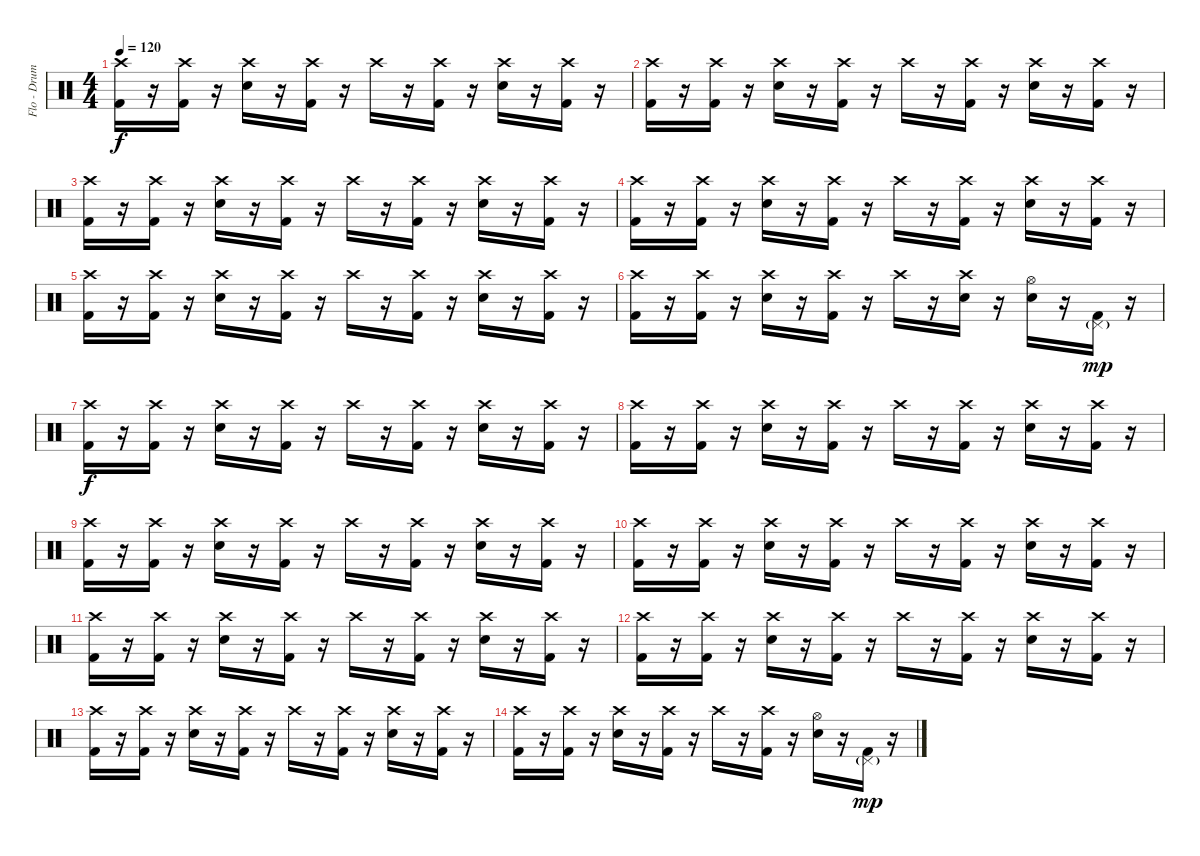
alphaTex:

\track ("Flo - Drums" "Flo - Drum") {instrument percussion}
\staff {score}
\articulation defaults
\ts (4 4)
\tempo 120
\clef neutral
\ks c
("Crash high (hit)" "Kick (hit) 2").16{dy f} r.16 ("Crash high (hit)" "Kick (hit) 2").16 r.16 ("Crash high (hit)" "Electric Snare (hit)").16 r.16 ("Crash high (hit)" "Kick (hit) 2").16 r.16 "Crash high (hit)".16 r.16 ("Crash high (hit)" "Kick (hit) 2").16 r.16 ("Crash high (hit)" "Electric Snare (hit)").16 r.16 ("Crash high (hit)" "Kick (hit) 2").16 r.16 |
("Crash high (hit)" "Kick (hit) 2").16 r.16 ("Crash high (hit)" "Kick (hit) 2").16 r.16 ("Crash high (hit)" "Electric Snare (hit)").16 r.16 ("Crash high (hit)" "Kick (hit) 2").16 r.16 "Crash high (hit)".16 r.16 ("Crash high (hit)" "Kick (hit) 2").16 r.16 ("Crash high (hit)" "Electric Snare (hit)").16 r.16 ("Crash high (hit)" "Kick (hit) 2").16 r.16 |
("Crash high (hit)" "Kick (hit) 2").16 r.16 ("Crash high (hit)" "Kick (hit) 2").16 r.16 ("Crash high (hit)" "Electric Snare (hit)").16 r.16 ("Crash high (hit)" "Kick (hit) 2").16 r.16 "Crash high (hit)".16 r.16 ("Crash high (hit)" "Kick (hit) 2").16 r.16 ("Crash high (hit)" "Electric Snare (hit)").16 r.16 ("Crash high (hit)" "Kick (hit) 2").16 r.16 |
("Crash high (hit)" "Kick (hit) 2").16 r.16 ("Crash high (hit)" "Kick (hit) 2").16 r.16 ("Crash high (hit)" "Electric Snare (hit)").16 r.16 ("Crash high (hit)" "Kick (hit) 2").16 r.16 "Crash high (hit)".16 r.16 ("Crash high (hit)" "Kick (hit) 2").16 r.16 ("Crash high (hit)" "Electric Snare (hit)").16 r.16 ("Crash high (hit)" "Kick (hit) 2").16 r.16 |
("Crash high (hit)" "Kick (hit) 2").16 r.16 ("Crash high (hit)" "Kick (hit) 2").16 r.16 ("Crash high (hit)" "Electric Snare (hit)").16 r.16 ("Crash high (hit)" "Kick (hit) 2").16 r.16 "Crash high (hit)".16 r.16 ("Crash high (hit)" "Kick (hit) 2").16 r.16 ("Crash high (hit)" "Electric Snare (hit)").16 r.16 ("Crash high (hit)" "Kick (hit) 2").16 r.16 |
("Crash high (hit)" "Kick (hit) 2").16 r.16 ("Crash high (hit)" "Kick (hit) 2").16 r.16 ("Crash high (hit)" "Electric Snare (hit)").16 r.16 ("Crash high (hit)" "Kick (hit) 2").16 r.16 "Crash high (hit)".16 r.16 ("Crash high (hit)" "Electric Snare (hit)").16 r.16 ("Hi-Hat (open)" "Electric Snare (hit)").16 r.16 ("Pedal Hi-Hat (hit)"{g} "Kick (hit) 2").16{dy mp} r.16 |
("Crash high (hit)" "Kick (hit) 2").16{dy f} r.16 ("Crash high (hit)" "Kick (hit) 2").16 r.16 ("Crash high (hit)" "Electric Snare (hit)").16 r.16 ("Crash high (hit)" "Kick (hit) 2").16 r.16 "Crash high (hit)".16 r.16 ("Crash high (hit)" "Kick (hit) 2").16 r.16 ("Crash high (hit)" "Electric Snare (hit)").16 r.16 ("Crash high (hit)" "Kick (hit) 2").16 r.16 |
("Crash high (hit)" "Kick (hit) 2").16 r.16 ("Crash high (hit)" "Kick (hit) 2").16 r.16 ("Crash high (hit)" "Electric Snare (hit)").16 r.16 ("Crash high (hit)" "Kick (hit) 2").16 r.16 "Crash high (hit)".16 r.16 ("Crash high (hit)" "Kick (hit) 2").16 r.16 ("Crash high (hit)" "Electric Snare (hit)").16 r.16 ("Crash high (hit)" "Kick (hit) 2").16 r.16 |
("Crash high (hit)" "Kick (hit) 2").16 r.16 ("Crash high (hit)" "Kick (hit) 2").16 r.16 ("Crash high (hit)" "Electric Snare (hit)").16 r.16 ("Crash high (hit)" "Kick (hit) 2").16 r.16 "Crash high (hit)".16 r.16 ("Crash high (hit)" "Kick (hit) 2").16 r.16 ("Crash high (hit)" "Electric Snare (hit)").16 r.16 ("Crash high (hit)" "Kick (hit) 2").16 r.16 |
("Crash high (hit)" "Kick (hit) 2").16 r.16 ("Crash high (hit)" "Kick (hit) 2").16 r.16 ("Crash high (hit)" "Electric Snare (hit)").16 r.16 ("Crash high (hit)" "Kick (hit) 2").16 r.16 "Crash high (hit)".16 r.16 ("Crash high (hit)" "Kick (hit) 2").16 r.16 ("Crash high (hit)" "Electric Snare (hit)").16 r.16 ("Crash high (hit)" "Kick (hit) 2").16 r.16 |
("Crash high (hit)" "Kick (hit) 2").16 r.16 ("Crash high (hit)" "Kick (hit) 2").16 r.16 ("Crash high (hit)" "Electric Snare (hit)").16 r.16 ("Crash high (hit)" "Kick (hit) 2").16 r.16 "Crash high (hit)".16 r.16 ("Crash high (hit)" "Kick (hit) 2").16 r.16 ("Crash high (hit)" "Electric Snare (hit)").16 r.16 ("Crash high (hit)" "Kick (hit) 2").16 r.16 |
("Crash high (hit)" "Kick (hit) 2").16 r.16 ("Crash high (hit)" "Kick (hit) 2").16 r.16 ("Crash high (hit)" "Electric Snare (hit)").16 r.16 ("Crash high (hit)" "Kick (hit) 2").16 r.16 "Crash high (hit)".16 r.16 ("Crash high (hit)" "Kick (hit) 2").16 r.16 ("Crash high (hit)" "Electric Snare (hit)").16 r.16 ("Crash high (hit)" "Kick (hit) 2").16 r.16 |
("Crash high (hit)" "Kick (hit) 2").16 r.16 ("Crash high (hit)" "Kick (hit) 2").16 r.16 ("Crash high (hit)" "Electric Snare (hit)").16 r.16 ("Crash high (hit)" "Kick (hit) 2").16 r.16 "Crash high (hit)".16 r.16 ("Crash high (hit)" "Kick (hit) 2").16 r.16 ("Crash high (hit)" "Electric Snare (hit)").16 r.16 ("Crash high (hit)" "Kick (hit) 2").16 r.16 |
("Crash high (hit)" "Kick (hit) 2").16 r.16 ("Crash high (hit)" "Kick (hit) 2").16 r.16 ("Crash high (hit)" "Electric Snare (hit)").16 r.16 ("Crash high (hit)" "Kick (hit) 2").16 r.16 "Crash high (hit)".16 r.16 ("Crash high (hit)" "Kick (hit) 2").16 r.16 ("Hi-Hat (open)" "Electric Snare (hit)").16 r.16 ("Pedal Hi-Hat (hit)"{g} "Kick (hit) 2").16{dy mp} r.16
